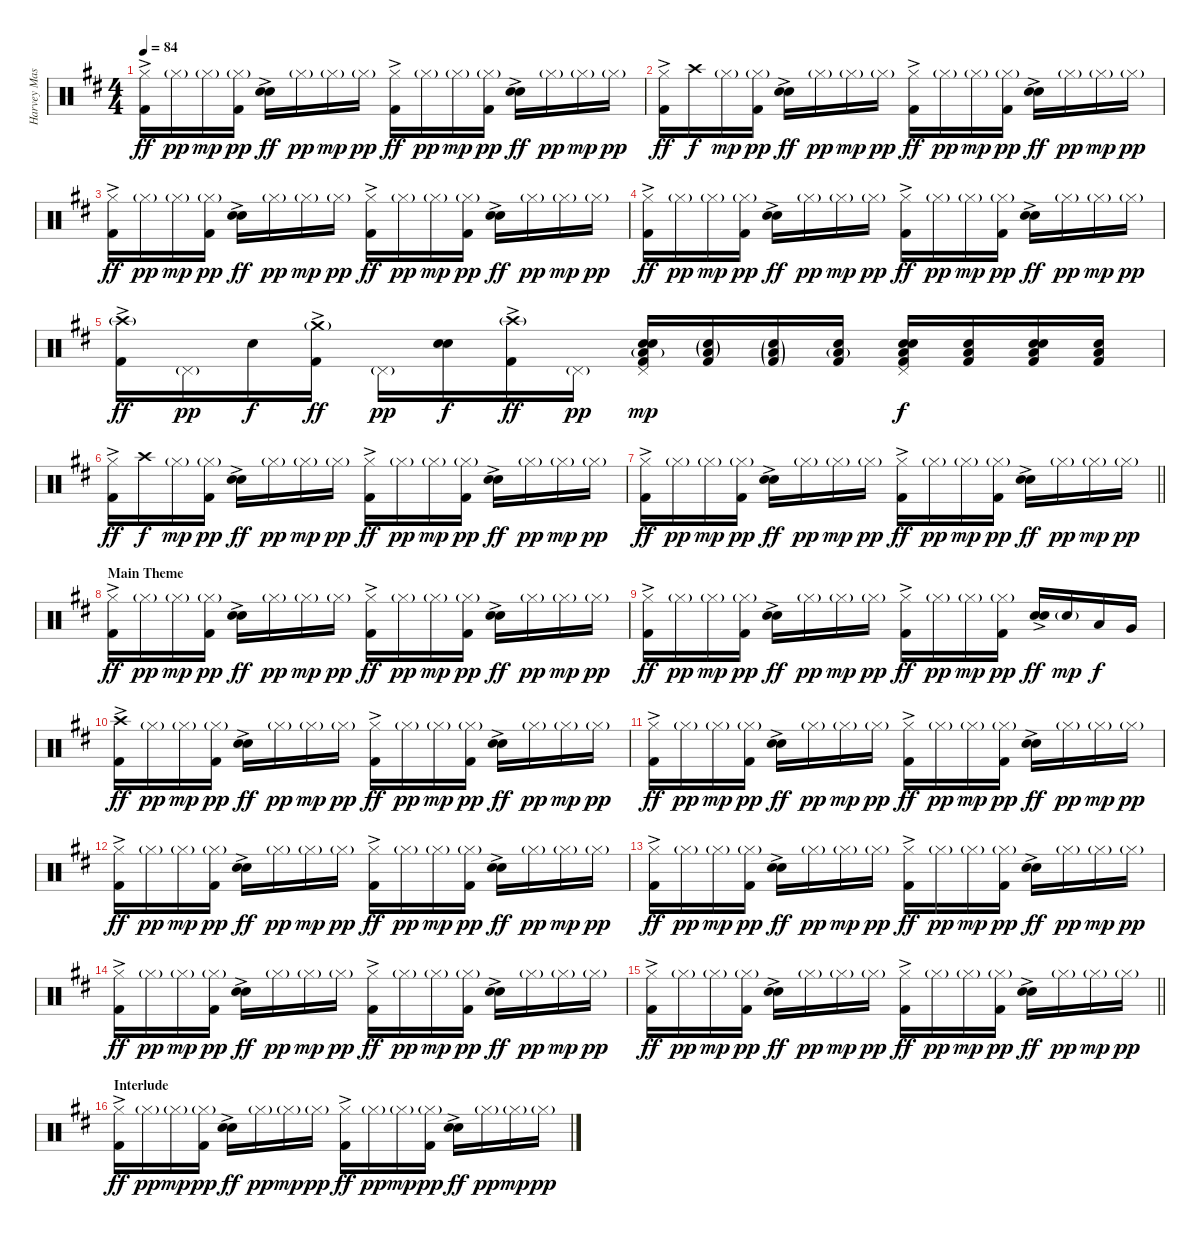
\track ("Harvey Mason" "Harvey Mas") {instrument percussion}
\staff {score}
\articulation defaults
\ts (4 4)
\tempo 84
\clef neutral
\ks d
("Hi-Hat (closed)" "Kick (hit) 2"{ac}).16{dy ff} "Hi-Hat (closed)"{g}.16{dy pp} "Hi-Hat (closed)"{g}.16{dy mp} ("Hi-Hat (closed)"{g} "Kick (hit) 2").16{dy pp} ("Electric Snare (hit)"{ac} "Snare (hit) 2").16{dy ff} "Hi-Hat (closed)"{g}.16{dy pp} "Hi-Hat (closed)"{g}.16{dy mp} "Hi-Hat (closed)"{g}.16{dy pp} ("Hi-Hat (closed)" "Kick (hit) 2"{ac}).16{dy ff} "Hi-Hat (closed)"{g}.16{dy pp} "Hi-Hat (closed)"{g}.16{dy mp} ("Hi-Hat (closed)"{g} "Kick (hit) 2").16{dy pp} ("Electric Snare (hit)"{ac} "Snare (hit) 2").16{dy ff} "Hi-Hat (closed)"{g}.16{dy pp} "Hi-Hat (closed)"{g}.16{dy mp} "Hi-Hat (closed)"{g}.16{dy pp} |
("Hi-Hat (closed)" "Kick (hit) 2"{ac}).16{dy ff} "Crash high (hit)".16{dy f} "Hi-Hat (closed)"{g}.16{dy mp} ("Hi-Hat (closed)"{g} "Kick (hit) 2").16{dy pp} ("Electric Snare (hit)"{ac} "Snare (hit) 2").16{dy ff} "Hi-Hat (closed)"{g}.16{dy pp} "Hi-Hat (closed)"{g}.16{dy mp} "Hi-Hat (closed)"{g}.16{dy pp} ("Hi-Hat (closed)" "Kick (hit) 2"{ac}).16{dy ff} "Hi-Hat (closed)"{g}.16{dy pp} "Hi-Hat (closed)"{g}.16{dy mp} ("Hi-Hat (closed)"{g} "Kick (hit) 2").16{dy pp} ("Electric Snare (hit)"{ac} "Snare (hit) 2").16{dy ff} "Hi-Hat (closed)"{g}.16{dy pp} "Hi-Hat (closed)"{g}.16{dy mp} "Hi-Hat (closed)"{g}.16{dy pp} |
("Hi-Hat (closed)" "Kick (hit) 2"{ac}).16{dy ff} "Hi-Hat (closed)"{g}.16{dy pp} "Hi-Hat (closed)"{g}.16{dy mp} ("Hi-Hat (closed)"{g} "Kick (hit) 2").16{dy pp} ("Electric Snare (hit)"{ac} "Snare (hit) 2").16{dy ff} "Hi-Hat (closed)"{g}.16{dy pp} "Hi-Hat (closed)"{g}.16{dy mp} "Hi-Hat (closed)"{g}.16{dy pp} ("Hi-Hat (closed)" "Kick (hit) 2"{ac}).16{dy ff} "Hi-Hat (closed)"{g}.16{dy pp} "Hi-Hat (closed)"{g}.16{dy mp} ("Hi-Hat (closed)"{g} "Kick (hit) 2").16{dy pp} ("Electric Snare (hit)"{ac} "Snare (hit) 2").16{dy ff} "Hi-Hat (closed)"{g}.16{dy pp} "Hi-Hat (closed)"{g}.16{dy mp} "Hi-Hat (closed)"{g}.16{dy pp} |
("Hi-Hat (closed)" "Kick (hit) 2"{ac}).16{dy ff} "Hi-Hat (closed)"{g}.16{dy pp} "Hi-Hat (closed)"{g}.16{dy mp} ("Hi-Hat (closed)"{g} "Kick (hit) 2").16{dy pp} ("Electric Snare (hit)"{ac} "Snare (hit) 2").16{dy ff} "Hi-Hat (closed)"{g}.16{dy pp} "Hi-Hat (closed)"{g}.16{dy mp} "Hi-Hat (closed)"{g}.16{dy pp} ("Hi-Hat (closed)" "Kick (hit) 2"{ac}).16{dy ff} "Hi-Hat (closed)"{g}.16{dy pp} "Hi-Hat (closed)"{g}.16{dy mp} ("Hi-Hat (closed)"{g} "Kick (hit) 2").16{dy pp} ("Electric Snare (hit)"{ac} "Snare (hit) 2").16{dy ff} "Hi-Hat (closed)"{g}.16{dy pp} "Hi-Hat (closed)"{g}.16{dy mp} "Hi-Hat (closed)"{g}.16{dy pp} |
("Crash high (hit)"{g} "Kick (hit) 2"{ac}).16{dy ff} "Pedal Hi-Hat (hit)"{g}.16{dy pp} "Snare (hit) 2".16{dy f} ("Crash medium (hit)"{g} "Kick (hit) 2"{ac}).16{dy ff} "Pedal Hi-Hat (hit)"{g}.16{dy pp} ("Electric Snare (hit)" "Snare (hit) 2").16{dy f} ("Crash high (hit)"{g} "Kick (hit) 2"{ac}).16{dy ff} "Pedal Hi-Hat (hit)"{g}.16{dy pp} ("Pedal Hi-Hat (hit)" "Low Floor Tom (hit)"{g} "Electric Snare (hit)" "Snare (hit) 2" "Kick (hit) 2").16{dy mp} ("Low Floor Tom (hit)"{g} "Snare (hit) 2"{g} "Kick (hit) 2").16 ("Low Floor Tom (hit)"{g} "Snare (hit) 2"{g} "Kick (hit) 2"{g}).16 ("Low Floor Tom (hit)"{g} "Snare (hit) 2" "Kick (hit) 2").16 ("Pedal Hi-Hat (hit)" "Low Floor Tom (hit)" "Electric Snare (hit)" "Snare (hit) 2" "Kick (hit) 2").16{dy f} ("Low Floor Tom (hit)" "Snare (hit) 2" "Kick (hit) 2").16 ("Low Floor Tom (hit)" "Electric Snare (hit)" "Snare (hit) 2" "Kick (hit) 2").16 ("Low Floor Tom (hit)" "Snare (hit) 2" "Kick (hit) 2").16 |
("Hi-Hat (closed)" "Kick (hit) 2"{ac}).16{dy ff} "Crash high (hit)".16{dy f} "Hi-Hat (closed)"{g}.16{dy mp} ("Hi-Hat (closed)"{g} "Kick (hit) 2").16{dy pp} ("Electric Snare (hit)"{ac} "Snare (hit) 2").16{dy ff} "Hi-Hat (closed)"{g}.16{dy pp} "Hi-Hat (closed)"{g}.16{dy mp} "Hi-Hat (closed)"{g}.16{dy pp} ("Hi-Hat (closed)" "Kick (hit) 2"{ac}).16{dy ff} "Hi-Hat (closed)"{g}.16{dy pp} "Hi-Hat (closed)"{g}.16{dy mp} ("Hi-Hat (closed)"{g} "Kick (hit) 2").16{dy pp} ("Electric Snare (hit)"{ac} "Snare (hit) 2").16{dy ff} "Hi-Hat (closed)"{g}.16{dy pp} "Hi-Hat (closed)"{g}.16{dy mp} "Hi-Hat (closed)"{g}.16{dy pp} |
\barLineRight lightlight
("Hi-Hat (closed)" "Kick (hit) 2"{ac}).16{dy ff} "Hi-Hat (closed)"{g}.16{dy pp} "Hi-Hat (closed)"{g}.16{dy mp} ("Hi-Hat (closed)"{g} "Kick (hit) 2").16{dy pp} ("Electric Snare (hit)"{ac} "Snare (hit) 2").16{dy ff} "Hi-Hat (closed)"{g}.16{dy pp} "Hi-Hat (closed)"{g}.16{dy mp} "Hi-Hat (closed)"{g}.16{dy pp} ("Hi-Hat (closed)" "Kick (hit) 2"{ac}).16{dy ff} "Hi-Hat (closed)"{g}.16{dy pp} "Hi-Hat (closed)"{g}.16{dy mp} ("Hi-Hat (closed)"{g} "Kick (hit) 2").16{dy pp} ("Electric Snare (hit)"{ac} "Snare (hit) 2").16{dy ff} "Hi-Hat (closed)"{g}.16{dy pp} "Hi-Hat (closed)"{g}.16{dy mp} "Hi-Hat (closed)"{g}.16{dy pp} |
\section ("" "Main Theme")
("Hi-Hat (closed)" "Kick (hit) 2"{ac}).16{dy ff} "Hi-Hat (closed)"{g}.16{dy pp} "Hi-Hat (closed)"{g}.16{dy mp} ("Hi-Hat (closed)"{g} "Kick (hit) 2").16{dy pp} ("Electric Snare (hit)"{ac} "Snare (hit) 2").16{dy ff} "Hi-Hat (closed)"{g}.16{dy pp} "Hi-Hat (closed)"{g}.16{dy mp} "Hi-Hat (closed)"{g}.16{dy pp} ("Hi-Hat (closed)" "Kick (hit) 2"{ac}).16{dy ff} "Hi-Hat (closed)"{g}.16{dy pp} "Hi-Hat (closed)"{g}.16{dy mp} ("Hi-Hat (closed)"{g} "Kick (hit) 2").16{dy pp} ("Electric Snare (hit)"{ac} "Snare (hit) 2").16{dy ff} "Hi-Hat (closed)"{g}.16{dy pp} "Hi-Hat (closed)"{g}.16{dy mp} "Hi-Hat (closed)"{g}.16{dy pp} |
("Hi-Hat (closed)" "Kick (hit) 2"{ac}).16{dy ff} "Hi-Hat (closed)"{g}.16{dy pp} "Hi-Hat (closed)"{g}.16{dy mp} ("Hi-Hat (closed)"{g} "Kick (hit) 2").16{dy pp} ("Electric Snare (hit)"{ac} "Snare (hit) 2").16{dy ff} "Hi-Hat (closed)"{g}.16{dy pp} "Hi-Hat (closed)"{g}.16{dy mp} "Hi-Hat (closed)"{g}.16{dy pp} ("Hi-Hat (closed)" "Kick (hit) 2"{ac}).16{dy ff} "Hi-Hat (closed)"{g}.16{dy pp} "Hi-Hat (closed)"{g}.16{dy mp} ("Hi-Hat (closed)"{g} "Kick (hit) 2").16{dy pp} ("Electric Snare (hit)"{ac} "Snare (hit) 2").16{dy ff} "Snare (hit) 2"{g}.16{dy mp} "Low Tom (hit)".16{dy f} "Very Low Tom (hit)".16 |
("Crash high (hit)" "Kick (hit) 2"{ac}).16{dy ff} "Hi-Hat (closed)"{g}.16{dy pp} "Hi-Hat (closed)"{g}.16{dy mp} ("Hi-Hat (closed)"{g} "Kick (hit) 2").16{dy pp} ("Electric Snare (hit)"{ac} "Snare (hit) 2").16{dy ff} "Hi-Hat (closed)"{g}.16{dy pp} "Hi-Hat (closed)"{g}.16{dy mp} "Hi-Hat (closed)"{g}.16{dy pp} ("Hi-Hat (closed)" "Kick (hit) 2"{ac}).16{dy ff} "Hi-Hat (closed)"{g}.16{dy pp} "Hi-Hat (closed)"{g}.16{dy mp} ("Hi-Hat (closed)"{g} "Kick (hit) 2").16{dy pp} ("Electric Snare (hit)"{ac} "Snare (hit) 2").16{dy ff} "Hi-Hat (closed)"{g}.16{dy pp} "Hi-Hat (closed)"{g}.16{dy mp} "Hi-Hat (closed)"{g}.16{dy pp} |
("Hi-Hat (closed)" "Kick (hit) 2"{ac}).16{dy ff} "Hi-Hat (closed)"{g}.16{dy pp} "Hi-Hat (closed)"{g}.16{dy mp} ("Hi-Hat (closed)"{g} "Kick (hit) 2").16{dy pp} ("Electric Snare (hit)"{ac} "Snare (hit) 2").16{dy ff} "Hi-Hat (closed)"{g}.16{dy pp} "Hi-Hat (closed)"{g}.16{dy mp} "Hi-Hat (closed)"{g}.16{dy pp} ("Hi-Hat (closed)" "Kick (hit) 2"{ac}).16{dy ff} "Hi-Hat (closed)"{g}.16{dy pp} "Hi-Hat (closed)"{g}.16{dy mp} ("Hi-Hat (closed)"{g} "Kick (hit) 2").16{dy pp} ("Electric Snare (hit)"{ac} "Snare (hit) 2").16{dy ff} "Hi-Hat (closed)"{g}.16{dy pp} "Hi-Hat (closed)"{g}.16{dy mp} "Hi-Hat (closed)"{g}.16{dy pp} |
("Hi-Hat (closed)" "Kick (hit) 2"{ac}).16{dy ff} "Hi-Hat (closed)"{g}.16{dy pp} "Hi-Hat (closed)"{g}.16{dy mp} ("Hi-Hat (closed)"{g} "Kick (hit) 2").16{dy pp} ("Electric Snare (hit)"{ac} "Snare (hit) 2").16{dy ff} "Hi-Hat (closed)"{g}.16{dy pp} "Hi-Hat (closed)"{g}.16{dy mp} "Hi-Hat (closed)"{g}.16{dy pp} ("Hi-Hat (closed)" "Kick (hit) 2"{ac}).16{dy ff} "Hi-Hat (closed)"{g}.16{dy pp} "Hi-Hat (closed)"{g}.16{dy mp} ("Hi-Hat (closed)"{g} "Kick (hit) 2").16{dy pp} ("Electric Snare (hit)"{ac} "Snare (hit) 2").16{dy ff} "Hi-Hat (closed)"{g}.16{dy pp} "Hi-Hat (closed)"{g}.16{dy mp} "Hi-Hat (closed)"{g}.16{dy pp} |
("Hi-Hat (closed)" "Kick (hit) 2"{ac}).16{dy ff} "Hi-Hat (closed)"{g}.16{dy pp} "Hi-Hat (closed)"{g}.16{dy mp} ("Hi-Hat (closed)"{g} "Kick (hit) 2").16{dy pp} ("Electric Snare (hit)"{ac} "Snare (hit) 2").16{dy ff} "Hi-Hat (closed)"{g}.16{dy pp} "Hi-Hat (closed)"{g}.16{dy mp} "Hi-Hat (closed)"{g}.16{dy pp} ("Hi-Hat (closed)" "Kick (hit) 2"{ac}).16{dy ff} "Hi-Hat (closed)"{g}.16{dy pp} "Hi-Hat (closed)"{g}.16{dy mp} ("Hi-Hat (closed)"{g} "Kick (hit) 2").16{dy pp} ("Electric Snare (hit)"{ac} "Snare (hit) 2").16{dy ff} "Hi-Hat (closed)"{g}.16{dy pp} "Hi-Hat (closed)"{g}.16{dy mp} "Hi-Hat (closed)"{g}.16{dy pp} |
("Hi-Hat (closed)" "Kick (hit) 2"{ac}).16{dy ff} "Hi-Hat (closed)"{g}.16{dy pp} "Hi-Hat (closed)"{g}.16{dy mp} ("Hi-Hat (closed)"{g} "Kick (hit) 2").16{dy pp} ("Electric Snare (hit)"{ac} "Snare (hit) 2").16{dy ff} "Hi-Hat (closed)"{g}.16{dy pp} "Hi-Hat (closed)"{g}.16{dy mp} "Hi-Hat (closed)"{g}.16{dy pp} ("Hi-Hat (closed)" "Kick (hit) 2"{ac}).16{dy ff} "Hi-Hat (closed)"{g}.16{dy pp} "Hi-Hat (closed)"{g}.16{dy mp} ("Hi-Hat (closed)"{g} "Kick (hit) 2").16{dy pp} ("Electric Snare (hit)"{ac} "Snare (hit) 2").16{dy ff} "Hi-Hat (closed)"{g}.16{dy pp} "Hi-Hat (closed)"{g}.16{dy mp} "Hi-Hat (closed)"{g}.16{dy pp} |
\barLineRight lightlight
("Hi-Hat (closed)" "Kick (hit) 2"{ac}).16{dy ff} "Hi-Hat (closed)"{g}.16{dy pp} "Hi-Hat (closed)"{g}.16{dy mp} ("Hi-Hat (closed)"{g} "Kick (hit) 2").16{dy pp} ("Electric Snare (hit)"{ac} "Snare (hit) 2").16{dy ff} "Hi-Hat (closed)"{g}.16{dy pp} "Hi-Hat (closed)"{g}.16{dy mp} "Hi-Hat (closed)"{g}.16{dy pp} ("Hi-Hat (closed)" "Kick (hit) 2"{ac}).16{dy ff} "Hi-Hat (closed)"{g}.16{dy pp} "Hi-Hat (closed)"{g}.16{dy mp} ("Hi-Hat (closed)"{g} "Kick (hit) 2").16{dy pp} ("Electric Snare (hit)"{ac} "Snare (hit) 2").16{dy ff} "Hi-Hat (closed)"{g}.16{dy pp} "Hi-Hat (closed)"{g}.16{dy mp} "Hi-Hat (closed)"{g}.16{dy pp} |
\section ("" "Interlude")
("Hi-Hat (closed)" "Kick (hit) 2"{ac}).16{dy ff} "Hi-Hat (closed)"{g}.16{dy pp} "Hi-Hat (closed)"{g}.16{dy mp} ("Hi-Hat (closed)"{g} "Kick (hit) 2").16{dy pp} ("Electric Snare (hit)"{ac} "Snare (hit) 2").16{dy ff} "Hi-Hat (closed)"{g}.16{dy pp} "Hi-Hat (closed)"{g}.16{dy mp} "Hi-Hat (closed)"{g}.16{dy pp} ("Hi-Hat (closed)" "Kick (hit) 2"{ac}).16{dy ff} "Hi-Hat (closed)"{g}.16{dy pp} "Hi-Hat (closed)"{g}.16{dy mp} ("Hi-Hat (closed)"{g} "Kick (hit) 2").16{dy pp} ("Electric Snare (hit)"{ac} "Snare (hit) 2").16{dy ff} "Hi-Hat (closed)"{g}.16{dy pp} "Hi-Hat (closed)"{g}.16{dy mp} "Hi-Hat (closed)"{g}.16{dy pp}
